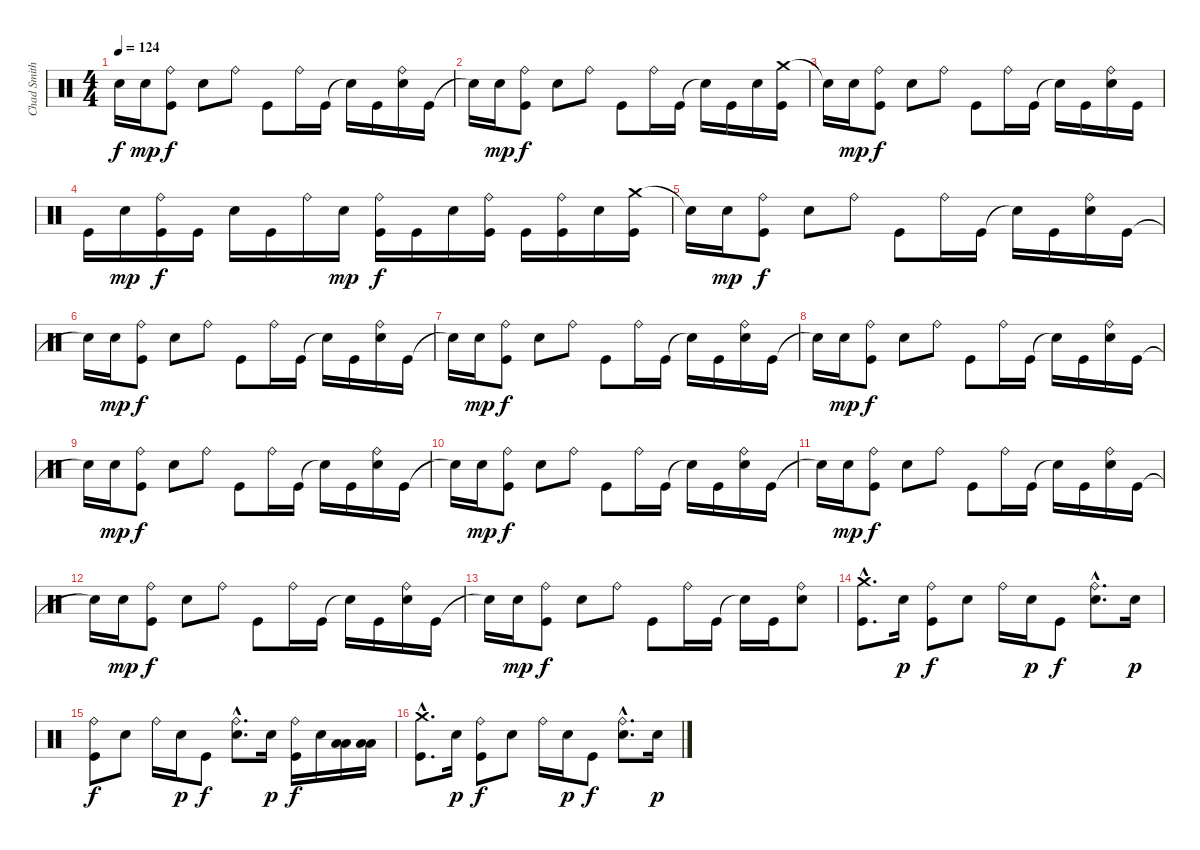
\track ("Chad Smith" "Chad Smith") {instrument percussion}
\staff {score}
\articulation defaults
\ts (4 4)
\tempo 124
\clef neutral
\ks c "Snare (hit)"{t}.16{dy f} "Electric Snare (hit)".16{dy mp}
("Ride (bell)" "Kick (hit)").8{dy f} "Electric Snare (hit)".8 "Ride (bell)".8 "Kick (hit)".8 "Ride (bell)".16 "Kick (hit)".16 "Snare (hit)"{t}.16 "Kick (hit)".16 ("Ride (bell)" "Electric Snare (hit)").16 "Kick (hit)".16 |
"Snare (hit)"{t}.16 "Electric Snare (hit)".16{dy mp} ("Ride (bell)" "Kick (hit)").8{dy f} "Electric Snare (hit)".8 "Ride (bell)".8 "Kick (hit)".8 "Ride (bell)".16 "Kick (hit)".16 "Snare (hit)"{t}.16 "Kick (hit)".16 "Electric Snare (hit)".16 ("Crash medium (hit)" "Kick (hit)").16 |
"Snare (hit)"{t}.16 "Electric Snare (hit)".16{dy mp} ("Ride (bell)" "Kick (hit)").8{dy f} "Electric Snare (hit)".8 "Ride (bell)".8 "Kick (hit)".8 "Ride (bell)".16 "Kick (hit)".16 "Snare (hit)"{t}.16 "Kick (hit)".16 ("Ride (bell)" "Electric Snare (hit)").16 "Kick (hit)".16 |
"Kick (hit)".16 "Electric Snare (hit)".16{dy mp} ("Ride (bell)" "Kick (hit)").16{dy f} "Kick (hit)".16 "Electric Snare (hit)".16 "Kick (hit)".16 "Ride (bell)".16 "Electric Snare (hit)".16{dy mp} ("Ride (bell)" "Kick (hit)").16{dy f} "Kick (hit)".16 "Electric Snare (hit)".16 ("Ride (bell)" "Kick (hit)").16 "Kick (hit)".16 ("Ride (bell)" "Kick (hit)").16 "Electric Snare (hit)".16 ("Crash medium (hit)" "Kick (hit)").16 |
"Snare (hit)"{t}.16 "Electric Snare (hit)".16{dy mp} ("Ride (bell)" "Kick (hit)").8{dy f} "Electric Snare (hit)".8 "Ride (bell)".8 "Kick (hit)".8 "Ride (bell)".16 "Kick (hit)".16 "Snare (hit)"{t}.16 "Kick (hit)".16 ("Ride (bell)" "Electric Snare (hit)").16 "Kick (hit)".16 |
"Snare (hit)"{t}.16 "Electric Snare (hit)".16{dy mp} ("Ride (bell)" "Kick (hit)").8{dy f} "Electric Snare (hit)".8 "Ride (bell)".8 "Kick (hit)".8 "Ride (bell)".16 "Kick (hit)".16 "Snare (hit)"{t}.16 "Kick (hit)".16 ("Ride (bell)" "Electric Snare (hit)").16 "Kick (hit)".16 |
"Snare (hit)"{t}.16 "Electric Snare (hit)".16{dy mp} ("Ride (bell)" "Kick (hit)").8{dy f} "Electric Snare (hit)".8 "Ride (bell)".8 "Kick (hit)".8 "Ride (bell)".16 "Kick (hit)".16 "Snare (hit)"{t}.16 "Kick (hit)".16 ("Ride (bell)" "Electric Snare (hit)").16 "Kick (hit)".16 |
"Snare (hit)"{t}.16 "Electric Snare (hit)".16{dy mp} ("Ride (bell)" "Kick (hit)").8{dy f} "Electric Snare (hit)".8 "Ride (bell)".8 "Kick (hit)".8 "Ride (bell)".16 "Kick (hit)".16 "Snare (hit)"{t}.16 "Kick (hit)".16 ("Ride (bell)" "Electric Snare (hit)").16 "Kick (hit)".16 |
"Snare (hit)"{t}.16 "Electric Snare (hit)".16{dy mp} ("Ride (bell)" "Kick (hit)").8{dy f} "Electric Snare (hit)".8 "Ride (bell)".8 "Kick (hit)".8 "Ride (bell)".16 "Kick (hit)".16 "Snare (hit)"{t}.16 "Kick (hit)".16 ("Ride (bell)" "Electric Snare (hit)").16 "Kick (hit)".16 |
"Snare (hit)"{t}.16 "Electric Snare (hit)".16{dy mp} ("Ride (bell)" "Kick (hit)").8{dy f} "Electric Snare (hit)".8 "Ride (bell)".8 "Kick (hit)".8 "Ride (bell)".16 "Kick (hit)".16 "Snare (hit)"{t}.16 "Kick (hit)".16 ("Ride (bell)" "Electric Snare (hit)").16 "Kick (hit)".16 |
"Snare (hit)"{t}.16 "Electric Snare (hit)".16{dy mp} ("Ride (bell)" "Kick (hit)").8{dy f} "Electric Snare (hit)".8 "Ride (bell)".8 "Kick (hit)".8 "Ride (bell)".16 "Kick (hit)".16 "Snare (hit)"{t}.16 "Kick (hit)".16 ("Ride (bell)" "Electric Snare (hit)").16 "Kick (hit)".16 |
"Snare (hit)"{t}.16 "Electric Snare (hit)".16{dy mp} ("Ride (bell)" "Kick (hit)").8{dy f} "Electric Snare (hit)".8 "Ride (bell)".8 "Kick (hit)".8 "Ride (bell)".16 "Kick (hit)".16 "Snare (hit)"{t}.16 "Kick (hit)".16 ("Ride (bell)" "Electric Snare (hit)").16 "Kick (hit)".16 |
"Snare (hit)"{t}.16 "Electric Snare (hit)".16{dy mp} ("Ride (bell)" "Kick (hit)").8{dy f} "Electric Snare (hit)".8 "Ride (bell)".8 "Kick (hit)".8 "Ride (bell)".16 "Kick (hit)".16 "Snare (hit)"{t}.16 "Kick (hit)".16 ("Ride (bell)" "Electric Snare (hit)").8 |
("Crash medium (hit)"{hac} "Kick (hit)"{hac}).8{d} "Electric Snare (hit)".16{dy p} ("Ride (bell)" "Kick (hit)").8{dy f} "Electric Snare (hit)".8 "Ride (bell)".16 "Electric Snare (hit)".16{dy p} "Kick (hit)".8{dy f} ("Ride (bell)"{hac} "Electric Snare (hit)"{hac}).8{d} "Electric Snare (hit)".16{dy p} |
("Ride (bell)" "Kick (hit)").8{dy f} "Electric Snare (hit)".8 "Ride (bell)".16 "Electric Snare (hit)".16{dy p} "Kick (hit)".8{dy f} ("Ride (bell)"{hac} "Electric Snare (hit)"{hac}).8{d} "Electric Snare (hit)".16{dy p} ("Ride (bell)" "Kick (hit)").16{dy f} "Electric Snare (hit)".16 ("Low Tom (hit)" "Low Tom (hit)").16 ("Low Tom (hit)" "Low Tom (hit)").16 |
("Crash medium (hit)"{hac} "Kick (hit)"{hac}).8{d} "Electric Snare (hit)".16{dy p} ("Ride (bell)" "Kick (hit)").8{dy f} "Electric Snare (hit)".8 "Ride (bell)".16 "Electric Snare (hit)".16{dy p} "Kick (hit)".8{dy f} ("Ride (bell)"{hac} "Electric Snare (hit)"{hac}).8{d} "Electric Snare (hit)".16{dy p}
